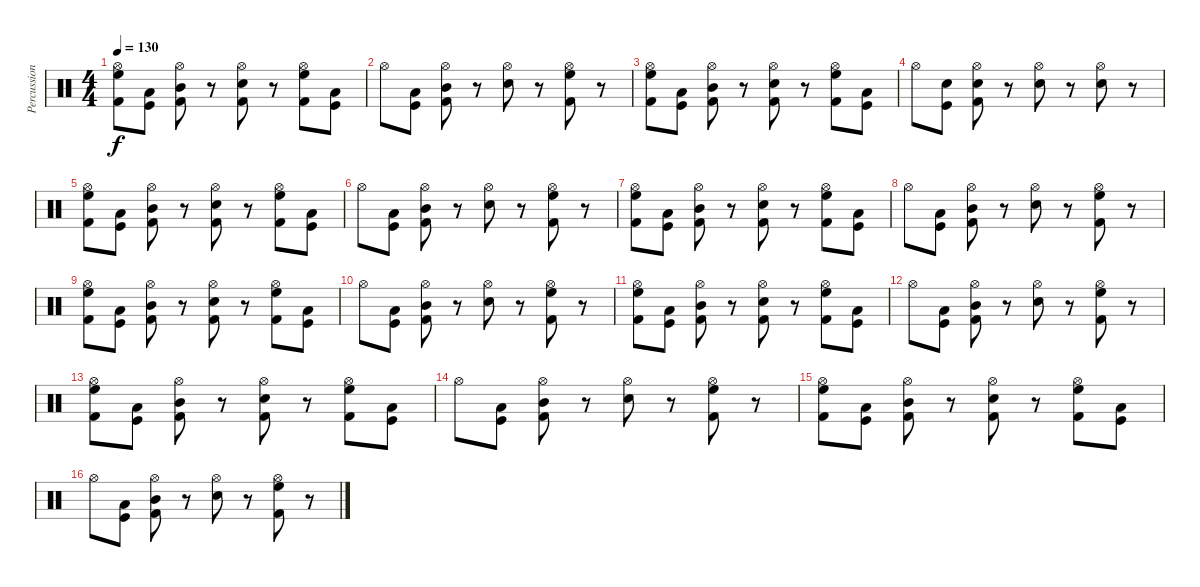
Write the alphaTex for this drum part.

\track ("Percussion" "Percussion") {instrument percussion}
\staff {score}
\articulation defaults
\ts (4 4)
\tempo 130
\clef neutral
\ks c
("Hi-Hat (open)" "High Floor Tom (hit)" "Kick (hit) 2").8{dy f} ("Low Tom (hit)" "Kick (hit)").8 ("Hi-Hat (open)" "Mid Tom (hit)" "Kick (hit) 2").8 r.8 ("Hi-Hat (open)" "Snare (hit) 2" "Kick (hit) 2").8 r.8 ("Hi-Hat (open)" "High Floor Tom (hit)" "Kick (hit) 2").8 ("Low Tom (hit)" "Kick (hit)").8 |
"Hi-Hat (open)".8 ("Low Tom (hit)" "Kick (hit)").8 ("Hi-Hat (open)" "Mid Tom (hit)" "Kick (hit) 2").8 r.8 ("Hi-Hat (open)" "Snare (hit) 2").8 r.8 ("Hi-Hat (open)" "High Floor Tom (hit)" "Kick (hit) 2").8 r.8 |
("Hi-Hat (open)" "High Floor Tom (hit)" "Kick (hit) 2").8 ("Low Tom (hit)" "Kick (hit)").8 ("Hi-Hat (open)" "Mid Tom (hit)" "Kick (hit) 2").8 r.8 ("Hi-Hat (open)" "Snare (hit) 2" "Kick (hit) 2").8 r.8 ("Hi-Hat (open)" "High Floor Tom (hit)" "Kick (hit) 2").8 ("Low Tom (hit)" "Kick (hit)").8 |
"Hi-Hat (open)".8 ("Snare (hit) 2" "Kick (hit)").8 ("Hi-Hat (open)" "Snare (hit) 2" "Kick (hit) 2").8 r.8 ("Hi-Hat (open)" "Snare (hit) 2").8 r.8 ("Hi-Hat (open)" "Snare (hit) 2").8 r.8 |
("Hi-Hat (open)" "High Floor Tom (hit)" "Kick (hit) 2").8 ("Low Tom (hit)" "Kick (hit)").8 ("Hi-Hat (open)" "Mid Tom (hit)" "Kick (hit) 2").8 r.8 ("Hi-Hat (open)" "Snare (hit) 2" "Kick (hit) 2").8 r.8 ("Hi-Hat (open)" "High Floor Tom (hit)" "Kick (hit) 2").8 ("Low Tom (hit)" "Kick (hit)").8 |
"Hi-Hat (open)".8 ("Low Tom (hit)" "Kick (hit)").8 ("Hi-Hat (open)" "Mid Tom (hit)" "Kick (hit) 2").8 r.8 ("Hi-Hat (open)" "Snare (hit) 2").8 r.8 ("Hi-Hat (open)" "High Floor Tom (hit)" "Kick (hit) 2").8 r.8 |
("Hi-Hat (open)" "High Floor Tom (hit)" "Kick (hit) 2").8 ("Low Tom (hit)" "Kick (hit)").8 ("Hi-Hat (open)" "Mid Tom (hit)" "Kick (hit) 2").8 r.8 ("Hi-Hat (open)" "Snare (hit) 2" "Kick (hit) 2").8 r.8 ("Hi-Hat (open)" "High Floor Tom (hit)" "Kick (hit) 2").8 ("Low Tom (hit)" "Kick (hit)").8 |
"Hi-Hat (open)".8 ("Low Tom (hit)" "Kick (hit)").8 ("Hi-Hat (open)" "Mid Tom (hit)" "Kick (hit) 2").8 r.8 ("Hi-Hat (open)" "Snare (hit) 2").8 r.8 ("Hi-Hat (open)" "High Floor Tom (hit)" "Kick (hit) 2").8 r.8 |
("Hi-Hat (open)" "High Floor Tom (hit)" "Kick (hit) 2").8 ("Low Tom (hit)" "Kick (hit)").8 ("Hi-Hat (open)" "Mid Tom (hit)" "Kick (hit) 2").8 r.8 ("Hi-Hat (open)" "Snare (hit) 2" "Kick (hit) 2").8 r.8 ("Hi-Hat (open)" "High Floor Tom (hit)" "Kick (hit) 2").8 ("Low Tom (hit)" "Kick (hit)").8 |
"Hi-Hat (open)".8 ("Low Tom (hit)" "Kick (hit)").8 ("Hi-Hat (open)" "Mid Tom (hit)" "Kick (hit) 2").8 r.8 ("Hi-Hat (open)" "Snare (hit) 2").8 r.8 ("Hi-Hat (open)" "High Floor Tom (hit)" "Kick (hit) 2").8 r.8 |
("Hi-Hat (open)" "High Floor Tom (hit)" "Kick (hit) 2").8 ("Low Tom (hit)" "Kick (hit)").8 ("Hi-Hat (open)" "Mid Tom (hit)" "Kick (hit) 2").8 r.8 ("Hi-Hat (open)" "Snare (hit) 2" "Kick (hit) 2").8 r.8 ("Hi-Hat (open)" "High Floor Tom (hit)" "Kick (hit) 2").8 ("Low Tom (hit)" "Kick (hit)").8 |
"Hi-Hat (open)".8 ("Low Tom (hit)" "Kick (hit)").8 ("Hi-Hat (open)" "Mid Tom (hit)" "Kick (hit) 2").8 r.8 ("Hi-Hat (open)" "Snare (hit) 2").8 r.8 ("Hi-Hat (open)" "High Floor Tom (hit)" "Kick (hit) 2").8 r.8 |
("Hi-Hat (open)" "High Floor Tom (hit)" "Kick (hit) 2").8 ("Low Tom (hit)" "Kick (hit)").8 ("Hi-Hat (open)" "Mid Tom (hit)" "Kick (hit) 2").8 r.8 ("Hi-Hat (open)" "Snare (hit) 2" "Kick (hit) 2").8 r.8 ("Hi-Hat (open)" "High Floor Tom (hit)" "Kick (hit) 2").8 ("Low Tom (hit)" "Kick (hit)").8 |
"Hi-Hat (open)".8 ("Low Tom (hit)" "Kick (hit)").8 ("Hi-Hat (open)" "Mid Tom (hit)" "Kick (hit) 2").8 r.8 ("Hi-Hat (open)" "Snare (hit) 2").8 r.8 ("Hi-Hat (open)" "High Floor Tom (hit)" "Kick (hit) 2").8 r.8 |
("Hi-Hat (open)" "High Floor Tom (hit)" "Kick (hit) 2").8 ("Low Tom (hit)" "Kick (hit)").8 ("Hi-Hat (open)" "Mid Tom (hit)" "Kick (hit) 2").8 r.8 ("Hi-Hat (open)" "Snare (hit) 2" "Kick (hit) 2").8 r.8 ("Hi-Hat (open)" "High Floor Tom (hit)" "Kick (hit) 2").8 ("Low Tom (hit)" "Kick (hit)").8 |
"Hi-Hat (open)".8 ("Low Tom (hit)" "Kick (hit)").8 ("Hi-Hat (open)" "Mid Tom (hit)" "Kick (hit) 2").8 r.8 ("Hi-Hat (open)" "Snare (hit) 2").8 r.8 ("Hi-Hat (open)" "High Floor Tom (hit)" "Kick (hit) 2").8 r.8
